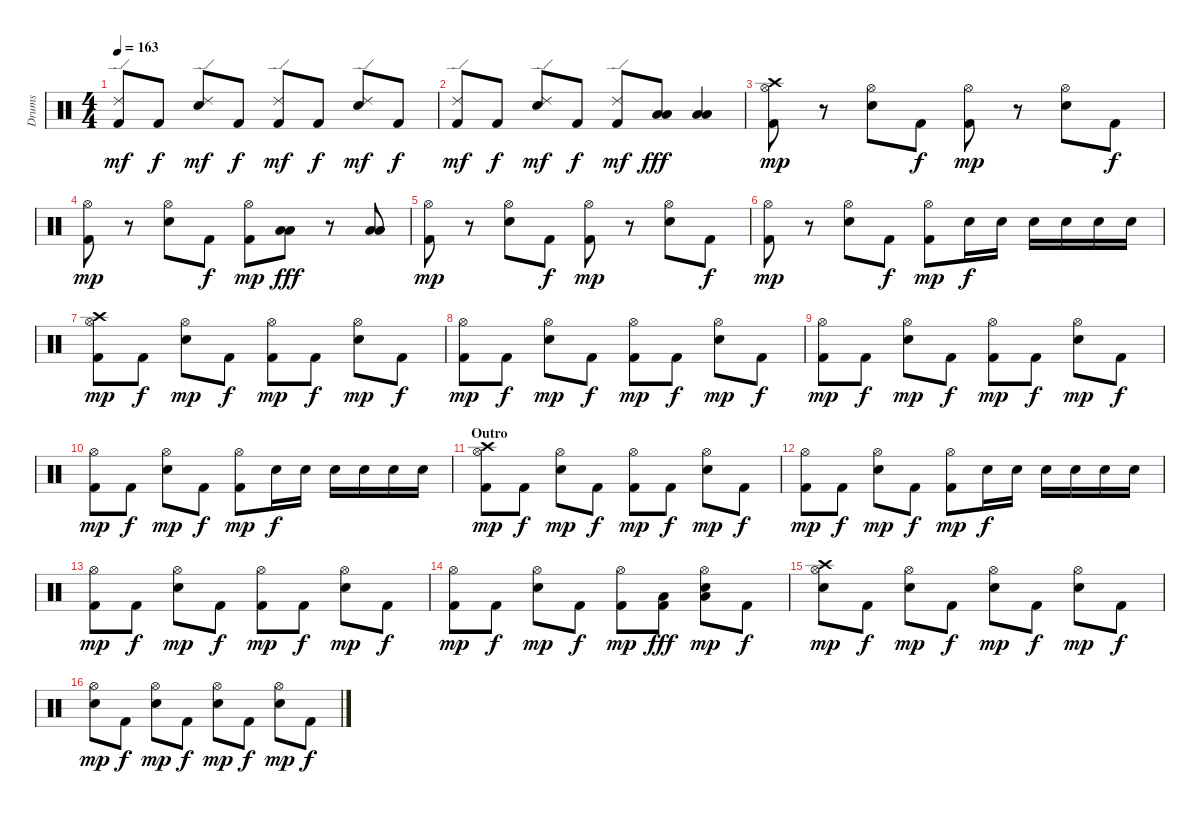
\track ("Drums" "Drums") {instrument percussion}
\staff {score}
\articulation defaults
\ts (4 4)
\tempo 163
\clef neutral
\ks c
("Ride (edge) 2" "Kick (hit) 2").8{dy mf} "Kick (hit) 2".8{dy f} ("Ride (edge) 2" "Electric Snare (hit)").8{dy mf} "Kick (hit) 2".8{dy f} ("Ride (edge) 2" "Kick (hit) 2").8{dy mf} "Kick (hit) 2".8{dy f} ("Ride (edge) 2" "Electric Snare (hit)").8{dy mf} "Kick (hit) 2".8{dy f} |
("Ride (edge) 2" "Kick (hit) 2").8{dy mf} "Kick (hit) 2".8{dy f} ("Ride (edge) 2" "Electric Snare (hit)").8{dy mf} "Kick (hit) 2".8{dy f} ("Ride (edge) 2" "Kick (hit) 2").8{dy mf} ("Low Floor Tom (hit)" "Low Floor Tom (hit)").8{dy fff} ("Low Floor Tom (hit)" "Low Floor Tom (hit)").4 |
("Crash high (hit)" "Hi-Hat (open)" "Kick (hit) 2").8{dy mp} r.8 ("Hi-Hat (open)" "Electric Snare (hit)").8 "Kick (hit) 2".8{dy f} ("Hi-Hat (open)" "Kick (hit) 2").8{dy mp} r.8 ("Hi-Hat (open)" "Electric Snare (hit)").8 "Kick (hit) 2".8{dy f} |
("Hi-Hat (open)" "Kick (hit) 2").8{dy mp} r.8 ("Hi-Hat (open)" "Electric Snare (hit)").8 "Kick (hit) 2".8{dy f} ("Hi-Hat (open)" "Kick (hit) 2").8{dy mp} ("Low Floor Tom (hit)" "Low Floor Tom (hit)").8{dy fff} r.8 ("Low Floor Tom (hit)" "Low Floor Tom (hit)").8 |
("Hi-Hat (open)" "Kick (hit) 2").8{dy mp} r.8 ("Hi-Hat (open)" "Electric Snare (hit)").8 "Kick (hit) 2".8{dy f} ("Hi-Hat (open)" "Kick (hit) 2").8{dy mp} r.8 ("Hi-Hat (open)" "Electric Snare (hit)").8 "Kick (hit) 2".8{dy f} |
("Hi-Hat (open)" "Kick (hit) 2").8{dy mp} r.8 ("Hi-Hat (open)" "Electric Snare (hit)").8 "Kick (hit) 2".8{dy f} ("Hi-Hat (open)" "Kick (hit) 2").8{dy mp} "Electric Snare (hit)".16{dy f} "Electric Snare (hit)".16 "Electric Snare (hit)".16 "Electric Snare (hit)".16 "Electric Snare (hit)".16 "Electric Snare (hit)".16 |
("Crash high (hit)" "Hi-Hat (open)" "Kick (hit) 2").8{dy mp} "Kick (hit) 2".8{dy f} ("Hi-Hat (open)" "Electric Snare (hit)").8{dy mp} "Kick (hit) 2".8{dy f} ("Hi-Hat (open)" "Kick (hit) 2").8{dy mp} "Kick (hit) 2".8{dy f} ("Hi-Hat (open)" "Electric Snare (hit)").8{dy mp} "Kick (hit) 2".8{dy f} |
("Hi-Hat (open)" "Kick (hit) 2").8{dy mp} "Kick (hit) 2".8{dy f} ("Hi-Hat (open)" "Electric Snare (hit)").8{dy mp} "Kick (hit) 2".8{dy f} ("Hi-Hat (open)" "Kick (hit) 2").8{dy mp} "Kick (hit) 2".8{dy f} ("Hi-Hat (open)" "Electric Snare (hit)").8{dy mp} "Kick (hit) 2".8{dy f} |
("Hi-Hat (open)" "Kick (hit) 2").8{dy mp} "Kick (hit) 2".8{dy f} ("Hi-Hat (open)" "Electric Snare (hit)").8{dy mp} "Kick (hit) 2".8{dy f} ("Hi-Hat (open)" "Kick (hit) 2").8{dy mp} "Kick (hit) 2".8{dy f} ("Hi-Hat (open)" "Electric Snare (hit)").8{dy mp} "Kick (hit) 2".8{dy f} |
("Hi-Hat (open)" "Kick (hit) 2").8{dy mp} "Kick (hit) 2".8{dy f} ("Hi-Hat (open)" "Electric Snare (hit)").8{dy mp} "Kick (hit) 2".8{dy f} ("Hi-Hat (open)" "Kick (hit) 2").8{dy mp} "Electric Snare (hit)".16{dy f} "Electric Snare (hit)".16 "Electric Snare (hit)".16 "Electric Snare (hit)".16 "Electric Snare (hit)".16 "Electric Snare (hit)".16 |
\section ("" "Outro")
("Crash high (hit)" "Hi-Hat (open)" "Kick (hit) 2").8{dy mp} "Kick (hit) 2".8{dy f} ("Hi-Hat (open)" "Electric Snare (hit)").8{dy mp} "Kick (hit) 2".8{dy f} ("Hi-Hat (open)" "Kick (hit) 2").8{dy mp} "Kick (hit) 2".8{dy f} ("Hi-Hat (open)" "Electric Snare (hit)").8{dy mp} "Kick (hit) 2".8{dy f} |
("Hi-Hat (open)" "Kick (hit) 2").8{dy mp} "Kick (hit) 2".8{dy f} ("Hi-Hat (open)" "Electric Snare (hit)").8{dy mp} "Kick (hit) 2".8{dy f} ("Hi-Hat (open)" "Kick (hit) 2").8{dy mp} "Electric Snare (hit)".16{dy f} "Electric Snare (hit)".16 "Electric Snare (hit)".16 "Electric Snare (hit)".16 "Electric Snare (hit)".16 "Electric Snare (hit)".16 |
("Hi-Hat (open)" "Kick (hit) 2").8{dy mp} "Kick (hit) 2".8{dy f} ("Hi-Hat (open)" "Electric Snare (hit)").8{dy mp} "Kick (hit) 2".8{dy f} ("Hi-Hat (open)" "Kick (hit) 2").8{dy mp} "Kick (hit) 2".8{dy f} ("Hi-Hat (open)" "Electric Snare (hit)").8{dy mp} "Kick (hit) 2".8{dy f} |
("Hi-Hat (open)" "Kick (hit) 2").8{dy mp} "Kick (hit) 2".8{dy f} ("Hi-Hat (open)" "Electric Snare (hit)").8{dy mp} "Kick (hit) 2".8{dy f} ("Hi-Hat (open)" "Kick (hit) 2").8{dy mp} ("Low Floor Tom (hit)" "Kick (hit) 2").8{dy fff} ("Low Floor Tom (hit)" "Hi-Hat (open)" "Electric Snare (hit)").8{dy mp} "Kick (hit) 2".8{dy f} |
("Crash high (hit)" "Hi-Hat (open)" "Electric Snare (hit)").8{dy mp} "Kick (hit) 2".8{dy f} ("Hi-Hat (open)" "Electric Snare (hit)").8{dy mp} "Kick (hit) 2".8{dy f} ("Hi-Hat (open)" "Electric Snare (hit)").8{dy mp} "Kick (hit) 2".8{dy f} ("Hi-Hat (open)" "Electric Snare (hit)").8{dy mp} "Kick (hit) 2".8{dy f} |
("Hi-Hat (open)" "Electric Snare (hit)").8{dy mp} "Kick (hit) 2".8{dy f} ("Hi-Hat (open)" "Electric Snare (hit)").8{dy mp} "Kick (hit) 2".8{dy f} ("Hi-Hat (open)" "Electric Snare (hit)").8{dy mp} "Kick (hit) 2".8{dy f} ("Hi-Hat (open)" "Electric Snare (hit)").8{dy mp} "Kick (hit) 2".8{dy f}
